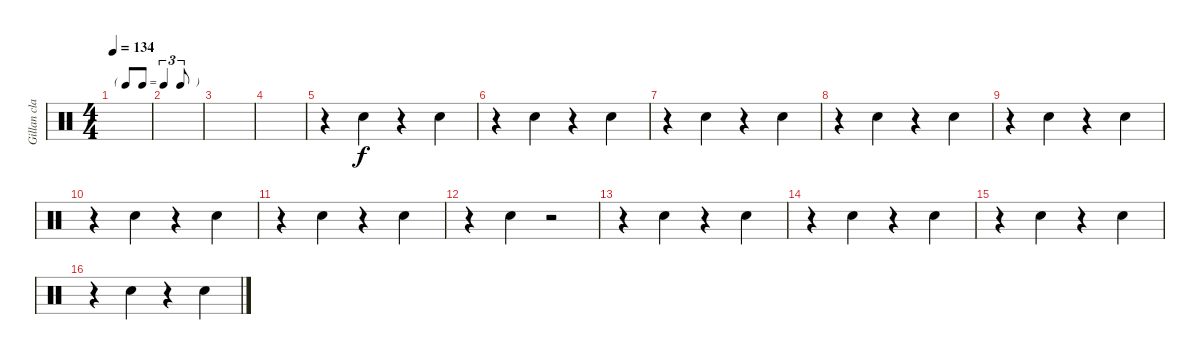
\track ("Gillan claps along" "Gillan cla") {instrument percussion}
\staff {score}
\articulation defaults
\ts (4 4)
\tf triplet8th
\tempo 134
\clef neutral
\ks c
|
|
|
|
r.4 "Hand Clap (hit)".4 r.4 "Hand Clap (hit)".4 |
r.4 "Hand Clap (hit)".4 r.4 "Hand Clap (hit)".4 |
r.4 "Hand Clap (hit)".4 r.4 "Hand Clap (hit)".4 |
r.4 "Hand Clap (hit)".4 r.4 "Hand Clap (hit)".4 |
r.4 "Hand Clap (hit)".4 r.4 "Hand Clap (hit)".4 |
r.4 "Hand Clap (hit)".4 r.4 "Hand Clap (hit)".4 |
r.4 "Hand Clap (hit)".4 r.4 "Hand Clap (hit)".4 |
r.4 "Hand Clap (hit)".4 r.2 |
r.4 "Hand Clap (hit)".4 r.4 "Hand Clap (hit)".4 |
r.4 "Hand Clap (hit)".4 r.4 "Hand Clap (hit)".4 |
r.4 "Hand Clap (hit)".4 r.4 "Hand Clap (hit)".4 |
r.4 "Hand Clap (hit)".4 r.4 "Hand Clap (hit)".4
